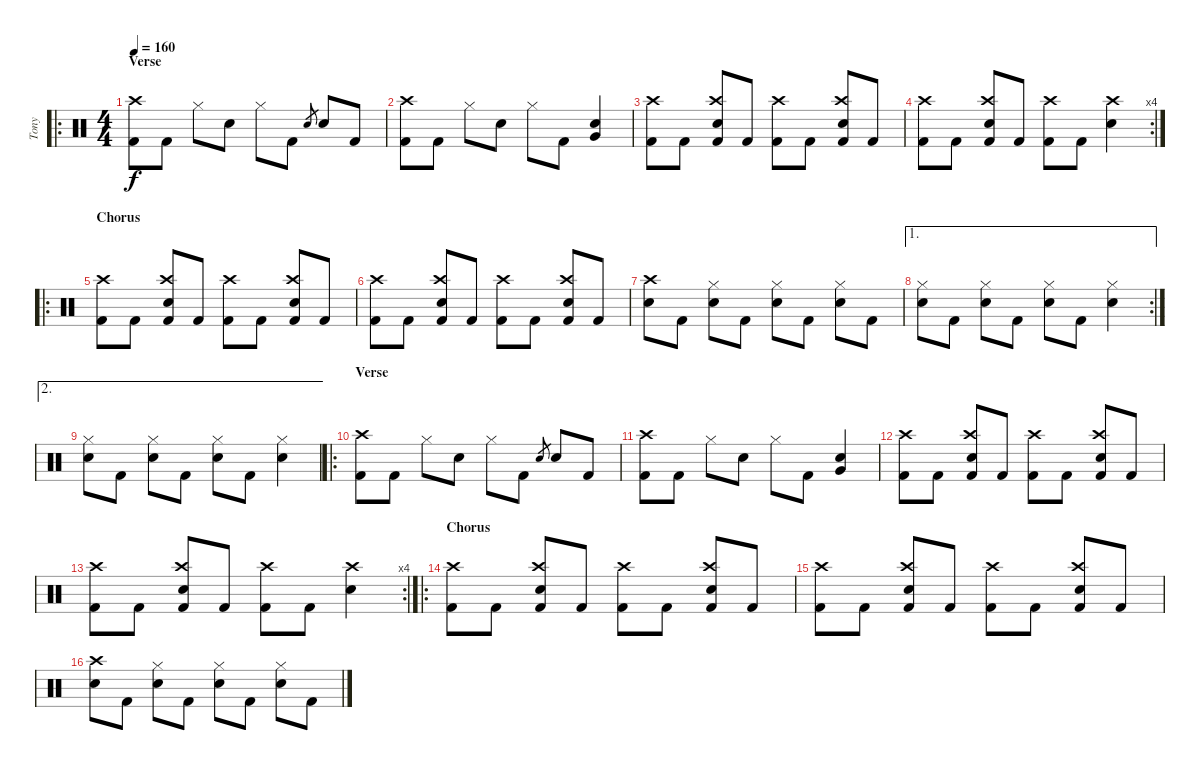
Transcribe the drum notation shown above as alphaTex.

\track ("Tony" "Tony") {instrument percussion}
\staff {score}
\articulation defaults
\ro
\ts (4 4)
\section ("" "Verse")
\tempo 160
\clef neutral
\ks c
("Kick (hit) 2" "Crash high (hit)").8{dy f} "Kick (hit) 2".8 "Hi-Hat (closed)".8 "Snare (hit) 2".8 "Hi-Hat (closed)".8 "Kick (hit) 2".8 "Snare (hit) 2".8{gr} "Snare (hit) 2".8 "Kick (hit) 2".8 |
("Kick (hit) 2" "Crash high (hit)").8 "Kick (hit) 2".8 "Hi-Hat (closed)".8 "Snare (hit) 2".8 "Hi-Hat (closed)".8 "Kick (hit) 2".8 ("Snare (hit) 2" "Very Low Tom (hit)").4 |
("Kick (hit) 2" "Crash high (hit)").8 "Kick (hit) 2".8 ("Kick (hit) 2" "Crash high (hit)" "Snare (hit) 2").8 "Kick (hit) 2".8 ("Kick (hit) 2" "Crash high (hit)").8 "Kick (hit) 2".8 ("Kick (hit) 2" "Crash high (hit)" "Snare (hit) 2").8 "Kick (hit) 2".8 |
\rc 4
("Kick (hit) 2" "Crash high (hit)").8 "Kick (hit) 2".8 ("Kick (hit) 2" "Crash high (hit)" "Snare (hit) 2").8 "Kick (hit) 2".8 ("Kick (hit) 2" "Crash high (hit)").8 "Kick (hit) 2".8 ("Crash high (hit)" "Snare (hit) 2").4 |
\ro
\section ("" "Chorus")
("Kick (hit) 2" "Crash high (hit)").8 "Kick (hit) 2".8 ("Kick (hit) 2" "Crash high (hit)" "Snare (hit) 2").8 "Kick (hit) 2".8 ("Kick (hit) 2" "Crash high (hit)").8 "Kick (hit) 2".8 ("Kick (hit) 2" "Crash high (hit)" "Snare (hit) 2").8 "Kick (hit) 2".8 |
("Kick (hit) 2" "Crash high (hit)").8 "Kick (hit) 2".8 ("Kick (hit) 2" "Crash high (hit)" "Snare (hit) 2").8 "Kick (hit) 2".8 ("Kick (hit) 2" "Crash high (hit)").8 "Kick (hit) 2".8 ("Kick (hit) 2" "Crash high (hit)" "Snare (hit) 2").8 "Kick (hit) 2".8 |
("Crash high (hit)" "Snare (hit) 2").8 "Kick (hit) 2".8 ("Snare (hit) 2" "Hi-Hat (closed)").8 "Kick (hit) 2".8 ("Snare (hit) 2" "Hi-Hat (closed)").8 "Kick (hit) 2".8 ("Snare (hit) 2" "Hi-Hat (closed)").8 "Kick (hit) 2".8 |
\ae 1
\rc 2
("Snare (hit) 2" "Hi-Hat (closed)").8 "Kick (hit) 2".8 ("Snare (hit) 2" "Hi-Hat (closed)").8 "Kick (hit) 2".8 ("Snare (hit) 2" "Hi-Hat (closed)").8 "Kick (hit) 2".8 ("Snare (hit) 2" "Hi-Hat (closed)").4 |
\ae 2
("Snare (hit) 2" "Hi-Hat (closed)").8 "Kick (hit) 2".8 ("Snare (hit) 2" "Hi-Hat (closed)").8 "Kick (hit) 2".8 ("Snare (hit) 2" "Hi-Hat (closed)").8 "Kick (hit) 2".8 ("Snare (hit) 2" "Hi-Hat (closed)").4 |
\ro
\section ("" "Verse")
("Kick (hit) 2" "Crash high (hit)").8 "Kick (hit) 2".8 "Hi-Hat (closed)".8 "Snare (hit) 2".8 "Hi-Hat (closed)".8 "Kick (hit) 2".8 "Snare (hit) 2".8{gr} "Snare (hit) 2".8 "Kick (hit) 2".8 |
("Kick (hit) 2" "Crash high (hit)").8 "Kick (hit) 2".8 "Hi-Hat (closed)".8 "Snare (hit) 2".8 "Hi-Hat (closed)".8 "Kick (hit) 2".8 ("Snare (hit) 2" "Very Low Tom (hit)").4 |
("Kick (hit) 2" "Crash high (hit)").8 "Kick (hit) 2".8 ("Kick (hit) 2" "Crash high (hit)" "Snare (hit) 2").8 "Kick (hit) 2".8 ("Kick (hit) 2" "Crash high (hit)").8 "Kick (hit) 2".8 ("Kick (hit) 2" "Crash high (hit)" "Snare (hit) 2").8 "Kick (hit) 2".8 |
\rc 4
("Kick (hit) 2" "Crash high (hit)").8 "Kick (hit) 2".8 ("Kick (hit) 2" "Crash high (hit)" "Snare (hit) 2").8 "Kick (hit) 2".8 ("Kick (hit) 2" "Crash high (hit)").8 "Kick (hit) 2".8 ("Crash high (hit)" "Snare (hit) 2").4 |
\ro
\section ("" "Chorus")
("Kick (hit) 2" "Crash high (hit)").8 "Kick (hit) 2".8 ("Kick (hit) 2" "Crash high (hit)" "Snare (hit) 2").8 "Kick (hit) 2".8 ("Kick (hit) 2" "Crash high (hit)").8 "Kick (hit) 2".8 ("Kick (hit) 2" "Crash high (hit)" "Snare (hit) 2").8 "Kick (hit) 2".8 |
("Kick (hit) 2" "Crash high (hit)").8 "Kick (hit) 2".8 ("Kick (hit) 2" "Crash high (hit)" "Snare (hit) 2").8 "Kick (hit) 2".8 ("Kick (hit) 2" "Crash high (hit)").8 "Kick (hit) 2".8 ("Kick (hit) 2" "Crash high (hit)" "Snare (hit) 2").8 "Kick (hit) 2".8 |
("Crash high (hit)" "Snare (hit) 2").8 "Kick (hit) 2".8 ("Snare (hit) 2" "Hi-Hat (closed)").8 "Kick (hit) 2".8 ("Snare (hit) 2" "Hi-Hat (closed)").8 "Kick (hit) 2".8 ("Snare (hit) 2" "Hi-Hat (closed)").8 "Kick (hit) 2".8
